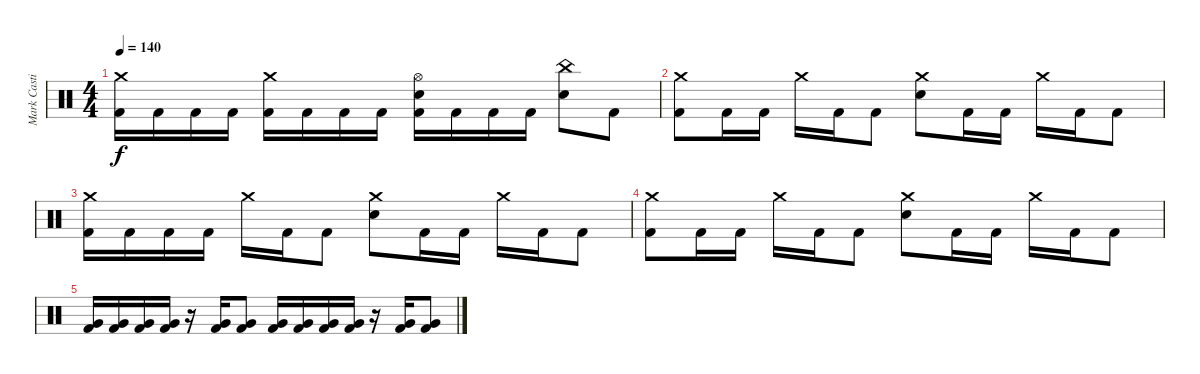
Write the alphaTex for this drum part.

\track ("Mark Castillo" "Mark Casti") {instrument percussion}
\staff {score}
\articulation defaults
\ts (4 4)
\tempo 140
\clef neutral
\ks c
("Kick (hit) 2" "Crash medium (hit)").16{dy f} "Kick (hit) 2".16 "Kick (hit) 2".16 "Kick (hit) 2".16 ("Kick (hit) 2" "Crash medium (hit)").16 "Kick (hit) 2".16 "Kick (hit) 2".16 "Kick (hit) 2".16 ("Kick (hit) 2" "Electric Snare (hit)" "Hi-Hat (open)").16 "Kick (hit) 2".16 "Kick (hit) 2".16 "Kick (hit) 2".16 ("Electric Snare (hit)" "China (hit)").8 "Kick (hit) 2".8 |
("Kick (hit) 2" "Crash medium (hit)").8 "Kick (hit) 2".16 "Kick (hit) 2".16 "Crash medium (hit)".16 "Kick (hit) 2".16 "Kick (hit) 2".8 ("Electric Snare (hit)" "Crash medium (hit)").8 "Kick (hit) 2".16 "Kick (hit) 2".16 "Crash medium (hit)".16 "Kick (hit) 2".16 "Kick (hit) 2".8 |
("Kick (hit) 2" "Crash medium (hit)").16 "Kick (hit) 2".16 "Kick (hit) 2".16 "Kick (hit) 2".16 "Crash medium (hit)".16 "Kick (hit) 2".16 "Kick (hit) 2".8 ("Electric Snare (hit)" "Crash medium (hit)").8 "Kick (hit) 2".16 "Kick (hit) 2".16 "Crash medium (hit)".16 "Kick (hit) 2".16 "Kick (hit) 2".8 |
("Kick (hit) 2" "Crash medium (hit)").8 "Kick (hit) 2".16 "Kick (hit) 2".16 "Crash medium (hit)".16 "Kick (hit) 2".16 "Kick (hit) 2".8 ("Electric Snare (hit)" "Crash medium (hit)").8 "Kick (hit) 2".16 "Kick (hit) 2".16 "Crash medium (hit)".16 "Kick (hit) 2".16 "Kick (hit) 2".8 |
("Kick (hit) 2" "Very Low Tom (hit)").16 ("Kick (hit) 2" "Very Low Tom (hit)").16 ("Kick (hit) 2" "Very Low Tom (hit)").16 ("Kick (hit) 2" "Very Low Tom (hit)").16 r.16 ("Kick (hit) 2" "Very Low Tom (hit)").16 ("Kick (hit) 2" "Very Low Tom (hit)").8 ("Kick (hit) 2" "Very Low Tom (hit)").16 ("Kick (hit) 2" "Very Low Tom (hit)").16 ("Kick (hit) 2" "Very Low Tom (hit)").16 ("Kick (hit) 2" "Very Low Tom (hit)").16 r.16 ("Kick (hit) 2" "Very Low Tom (hit)").16 ("Kick (hit) 2" "Very Low Tom (hit)").8
